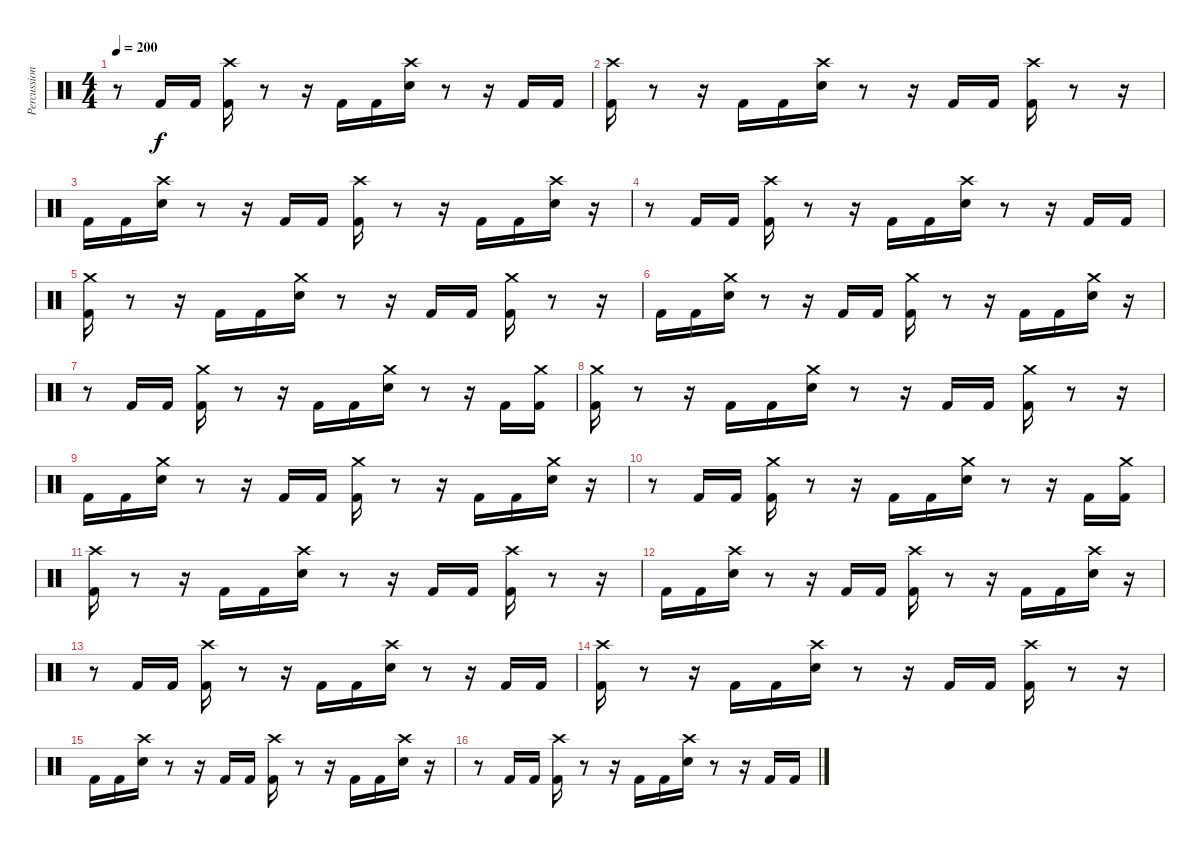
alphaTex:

\track ("Percussion" "Percussion") {instrument percussion}
\staff {score}
\articulation defaults
\ts (4 4)
\tempo 200
\clef neutral
\ks c
r.8{dy f} "Kick (hit) 2".16 "Kick (hit) 2".16 ("Crash high (hit)" "Kick (hit) 2").16 r.8 r.16 "Kick (hit) 2".16 "Kick (hit) 2".16 ("Crash high (hit)" "Electric Snare (hit)").16 r.8 r.16 "Kick (hit) 2".16 "Kick (hit) 2".16 |
("Crash high (hit)" "Kick (hit) 2").16 r.8 r.16 "Kick (hit) 2".16 "Kick (hit) 2".16 ("Crash high (hit)" "Electric Snare (hit)").16 r.8 r.16 "Kick (hit) 2".16 "Kick (hit) 2".16 ("Crash high (hit)" "Kick (hit) 2").16 r.8 r.16 |
"Kick (hit) 2".16 "Kick (hit) 2".16 ("Crash high (hit)" "Electric Snare (hit)").16 r.8 r.16 "Kick (hit) 2".16 "Kick (hit) 2".16 ("Crash high (hit)" "Kick (hit) 2").16 r.8 r.16 "Kick (hit) 2".16 "Kick (hit) 2".16 ("Crash high (hit)" "Electric Snare (hit)").16 r.16 |
r.8 "Kick (hit) 2".16 "Kick (hit) 2".16 ("Crash high (hit)" "Kick (hit) 2").16 r.8 r.16 "Kick (hit) 2".16 "Kick (hit) 2".16 ("Crash high (hit)" "Electric Snare (hit)").16 r.8 r.16 "Kick (hit) 2".16 "Kick (hit) 2".16 |
("Crash medium (hit)" "Kick (hit) 2").16 r.8 r.16 "Kick (hit) 2".16 "Kick (hit) 2".16 ("Crash medium (hit)" "Electric Snare (hit)").16 r.8 r.16 "Kick (hit) 2".16 "Kick (hit) 2".16 ("Crash medium (hit)" "Kick (hit) 2").16 r.8 r.16 |
"Kick (hit) 2".16 "Kick (hit) 2".16 ("Crash medium (hit)" "Electric Snare (hit)").16 r.8 r.16 "Kick (hit) 2".16 "Kick (hit) 2".16 ("Crash medium (hit)" "Kick (hit) 2").16 r.8 r.16 "Kick (hit) 2".16 "Kick (hit) 2".16 ("Crash medium (hit)" "Electric Snare (hit)").16 r.16 |
r.8 "Kick (hit) 2".16 "Kick (hit) 2".16 ("Crash medium (hit)" "Kick (hit) 2").16 r.8 r.16 "Kick (hit) 2".16 "Kick (hit) 2".16 ("Crash medium (hit)" "Electric Snare (hit)").16 r.8 r.16 "Kick (hit) 2".16 ("Crash medium (hit)" "Kick (hit) 2").16 |
("Crash medium (hit)" "Kick (hit) 2").16 r.8 r.16 "Kick (hit) 2".16 "Kick (hit) 2".16 ("Crash medium (hit)" "Electric Snare (hit)").16 r.8 r.16 "Kick (hit) 2".16 "Kick (hit) 2".16 ("Crash medium (hit)" "Kick (hit) 2").16 r.8 r.16 |
"Kick (hit) 2".16 "Kick (hit) 2".16 ("Crash medium (hit)" "Electric Snare (hit)").16 r.8 r.16 "Kick (hit) 2".16 "Kick (hit) 2".16 ("Crash medium (hit)" "Kick (hit) 2").16 r.8 r.16 "Kick (hit) 2".16 "Kick (hit) 2".16 ("Crash medium (hit)" "Electric Snare (hit)").16 r.16 |
r.8 "Kick (hit) 2".16 "Kick (hit) 2".16 ("Crash medium (hit)" "Kick (hit) 2").16 r.8 r.16 "Kick (hit) 2".16 "Kick (hit) 2".16 ("Crash medium (hit)" "Electric Snare (hit)").16 r.8 r.16 "Kick (hit) 2".16 ("Crash medium (hit)" "Kick (hit) 2").16 |
("Crash high (hit)" "Kick (hit) 2").16 r.8 r.16 "Kick (hit) 2".16 "Kick (hit) 2".16 ("Crash high (hit)" "Electric Snare (hit)").16 r.8 r.16 "Kick (hit) 2".16 "Kick (hit) 2".16 ("Crash high (hit)" "Kick (hit) 2").16 r.8 r.16 |
"Kick (hit) 2".16 "Kick (hit) 2".16 ("Crash high (hit)" "Electric Snare (hit)").16 r.8 r.16 "Kick (hit) 2".16 "Kick (hit) 2".16 ("Crash high (hit)" "Kick (hit) 2").16 r.8 r.16 "Kick (hit) 2".16 "Kick (hit) 2".16 ("Crash high (hit)" "Electric Snare (hit)").16 r.16 |
r.8 "Kick (hit) 2".16 "Kick (hit) 2".16 ("Crash high (hit)" "Kick (hit) 2").16 r.8 r.16 "Kick (hit) 2".16 "Kick (hit) 2".16 ("Crash high (hit)" "Electric Snare (hit)").16 r.8 r.16 "Kick (hit) 2".16 "Kick (hit) 2".16 |
("Crash high (hit)" "Kick (hit) 2").16 r.8 r.16 "Kick (hit) 2".16 "Kick (hit) 2".16 ("Crash high (hit)" "Electric Snare (hit)").16 r.8 r.16 "Kick (hit) 2".16 "Kick (hit) 2".16 ("Crash high (hit)" "Kick (hit) 2").16 r.8 r.16 |
"Kick (hit) 2".16 "Kick (hit) 2".16 ("Crash high (hit)" "Electric Snare (hit)").16 r.8 r.16 "Kick (hit) 2".16 "Kick (hit) 2".16 ("Crash high (hit)" "Kick (hit) 2").16 r.8 r.16 "Kick (hit) 2".16 "Kick (hit) 2".16 ("Crash high (hit)" "Electric Snare (hit)").16 r.16 |
r.8 "Kick (hit) 2".16 "Kick (hit) 2".16 ("Crash high (hit)" "Kick (hit) 2").16 r.8 r.16 "Kick (hit) 2".16 "Kick (hit) 2".16 ("Crash high (hit)" "Electric Snare (hit)").16 r.8 r.16 "Kick (hit) 2".16 "Kick (hit) 2".16
